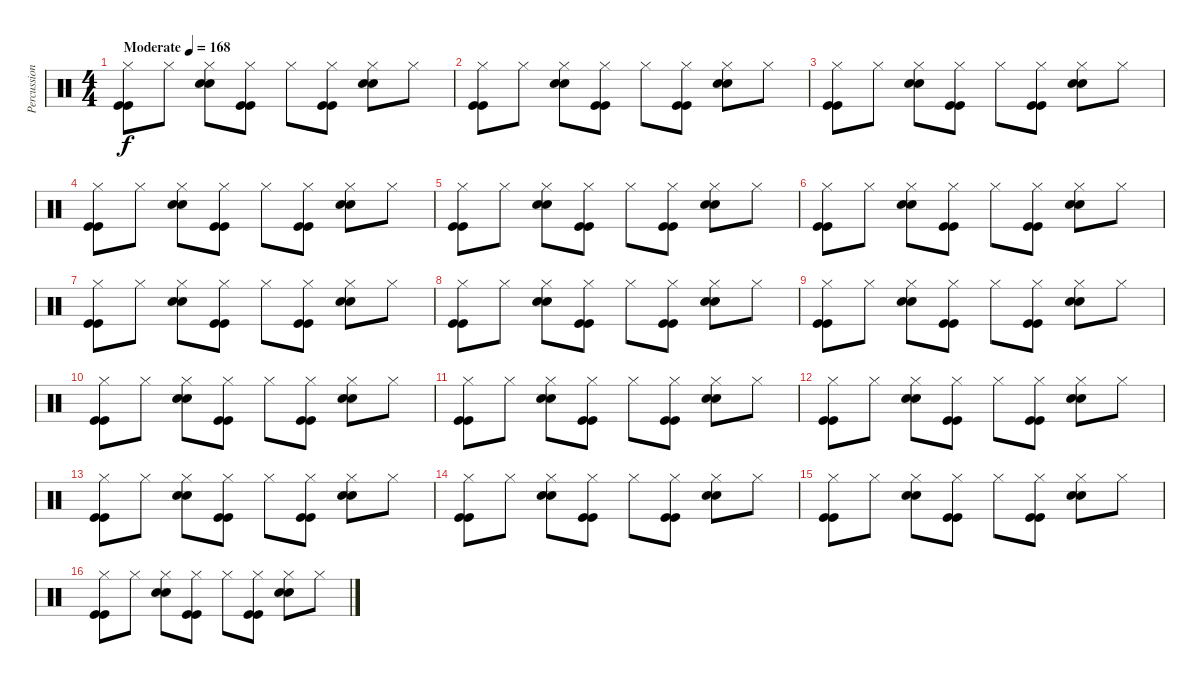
\track ("Percussion" "Percussion") {instrument percussion}
\staff {score}
\articulation defaults
\ts (4 4)
\tempo (168 "Moderate")
\clef neutral
\ks c
("Kick (hit)" "Hi-Hat (closed)" "Kick (hit)").8{dy f} "Hi-Hat (closed)".8 ("Snare (hit) 2" "Hi-Hat (closed)" "Snare (hit) 2").8 ("Kick (hit)" "Hi-Hat (closed)" "Kick (hit)").8 "Hi-Hat (closed)".8 ("Kick (hit)" "Hi-Hat (closed)" "Kick (hit)").8 ("Snare (hit) 2" "Hi-Hat (closed)" "Snare (hit) 2").8 "Hi-Hat (closed)".8 |
("Kick (hit)" "Hi-Hat (closed)" "Kick (hit)").8 "Hi-Hat (closed)".8 ("Snare (hit) 2" "Hi-Hat (closed)" "Snare (hit) 2").8 ("Kick (hit)" "Hi-Hat (closed)" "Kick (hit)").8 "Hi-Hat (closed)".8 ("Kick (hit)" "Hi-Hat (closed)" "Kick (hit)").8 ("Snare (hit) 2" "Hi-Hat (closed)" "Snare (hit) 2").8 "Hi-Hat (closed)".8 |
("Kick (hit)" "Hi-Hat (closed)" "Kick (hit)").8 "Hi-Hat (closed)".8 ("Snare (hit) 2" "Hi-Hat (closed)" "Snare (hit) 2").8 ("Kick (hit)" "Hi-Hat (closed)" "Kick (hit)").8 "Hi-Hat (closed)".8 ("Kick (hit)" "Hi-Hat (closed)" "Kick (hit)").8 ("Snare (hit) 2" "Hi-Hat (closed)" "Snare (hit) 2").8 "Hi-Hat (closed)".8 |
("Kick (hit)" "Hi-Hat (closed)" "Kick (hit)").8 "Hi-Hat (closed)".8 ("Snare (hit) 2" "Hi-Hat (closed)" "Snare (hit) 2").8 ("Kick (hit)" "Hi-Hat (closed)" "Kick (hit)").8 "Hi-Hat (closed)".8 ("Kick (hit)" "Hi-Hat (closed)" "Kick (hit)").8 ("Snare (hit) 2" "Hi-Hat (closed)" "Snare (hit) 2").8 "Hi-Hat (closed)".8 |
("Kick (hit)" "Hi-Hat (closed)" "Kick (hit)").8 "Hi-Hat (closed)".8 ("Snare (hit) 2" "Hi-Hat (closed)" "Snare (hit) 2").8 ("Kick (hit)" "Hi-Hat (closed)" "Kick (hit)").8 "Hi-Hat (closed)".8 ("Kick (hit)" "Hi-Hat (closed)" "Kick (hit)").8 ("Snare (hit) 2" "Hi-Hat (closed)" "Snare (hit) 2").8 "Hi-Hat (closed)".8 |
("Kick (hit)" "Hi-Hat (closed)" "Kick (hit)").8 "Hi-Hat (closed)".8 ("Snare (hit) 2" "Hi-Hat (closed)" "Snare (hit) 2").8 ("Kick (hit)" "Hi-Hat (closed)" "Kick (hit)").8 "Hi-Hat (closed)".8 ("Kick (hit)" "Hi-Hat (closed)" "Kick (hit)").8 ("Snare (hit) 2" "Hi-Hat (closed)" "Snare (hit) 2").8 "Hi-Hat (closed)".8 |
("Kick (hit)" "Hi-Hat (closed)" "Kick (hit)").8 "Hi-Hat (closed)".8 ("Snare (hit) 2" "Hi-Hat (closed)" "Snare (hit) 2").8 ("Kick (hit)" "Hi-Hat (closed)" "Kick (hit)").8 "Hi-Hat (closed)".8 ("Kick (hit)" "Hi-Hat (closed)" "Kick (hit)").8 ("Snare (hit) 2" "Hi-Hat (closed)" "Snare (hit) 2").8 "Hi-Hat (closed)".8 |
("Kick (hit)" "Hi-Hat (closed)" "Kick (hit)").8 "Hi-Hat (closed)".8 ("Snare (hit) 2" "Hi-Hat (closed)" "Snare (hit) 2").8 ("Kick (hit)" "Hi-Hat (closed)" "Kick (hit)").8 "Hi-Hat (closed)".8 ("Kick (hit)" "Hi-Hat (closed)" "Kick (hit)").8 ("Snare (hit) 2" "Hi-Hat (closed)" "Snare (hit) 2").8 "Hi-Hat (closed)".8 |
("Kick (hit)" "Hi-Hat (closed)" "Kick (hit)").8 "Hi-Hat (closed)".8 ("Snare (hit) 2" "Hi-Hat (closed)" "Snare (hit) 2").8 ("Kick (hit)" "Hi-Hat (closed)" "Kick (hit)").8 "Hi-Hat (closed)".8 ("Kick (hit)" "Hi-Hat (closed)" "Kick (hit)").8 ("Snare (hit) 2" "Hi-Hat (closed)" "Snare (hit) 2").8 "Hi-Hat (closed)".8 |
("Kick (hit)" "Hi-Hat (closed)" "Kick (hit)").8 "Hi-Hat (closed)".8 ("Snare (hit) 2" "Hi-Hat (closed)" "Snare (hit) 2").8 ("Kick (hit)" "Hi-Hat (closed)" "Kick (hit)").8 "Hi-Hat (closed)".8 ("Kick (hit)" "Hi-Hat (closed)" "Kick (hit)").8 ("Snare (hit) 2" "Hi-Hat (closed)" "Snare (hit) 2").8 "Hi-Hat (closed)".8 |
("Kick (hit)" "Hi-Hat (closed)" "Kick (hit)").8 "Hi-Hat (closed)".8 ("Snare (hit) 2" "Hi-Hat (closed)" "Snare (hit) 2").8 ("Kick (hit)" "Hi-Hat (closed)" "Kick (hit)").8 "Hi-Hat (closed)".8 ("Kick (hit)" "Hi-Hat (closed)" "Kick (hit)").8 ("Snare (hit) 2" "Hi-Hat (closed)" "Snare (hit) 2").8 "Hi-Hat (closed)".8 |
("Kick (hit)" "Hi-Hat (closed)" "Kick (hit)").8 "Hi-Hat (closed)".8 ("Snare (hit) 2" "Hi-Hat (closed)" "Snare (hit) 2").8 ("Kick (hit)" "Hi-Hat (closed)" "Kick (hit)").8 "Hi-Hat (closed)".8 ("Kick (hit)" "Hi-Hat (closed)" "Kick (hit)").8 ("Snare (hit) 2" "Hi-Hat (closed)" "Snare (hit) 2").8 "Hi-Hat (closed)".8 |
("Kick (hit)" "Hi-Hat (closed)" "Kick (hit)").8 "Hi-Hat (closed)".8 ("Snare (hit) 2" "Hi-Hat (closed)" "Snare (hit) 2").8 ("Kick (hit)" "Hi-Hat (closed)" "Kick (hit)").8 "Hi-Hat (closed)".8 ("Kick (hit)" "Hi-Hat (closed)" "Kick (hit)").8 ("Snare (hit) 2" "Hi-Hat (closed)" "Snare (hit) 2").8 "Hi-Hat (closed)".8 |
("Kick (hit)" "Hi-Hat (closed)" "Kick (hit)").8 "Hi-Hat (closed)".8 ("Snare (hit) 2" "Hi-Hat (closed)" "Snare (hit) 2").8 ("Kick (hit)" "Hi-Hat (closed)" "Kick (hit)").8 "Hi-Hat (closed)".8 ("Kick (hit)" "Hi-Hat (closed)" "Kick (hit)").8 ("Snare (hit) 2" "Hi-Hat (closed)" "Snare (hit) 2").8 "Hi-Hat (closed)".8 |
("Kick (hit)" "Hi-Hat (closed)" "Kick (hit)").8 "Hi-Hat (closed)".8 ("Snare (hit) 2" "Hi-Hat (closed)" "Snare (hit) 2").8 ("Kick (hit)" "Hi-Hat (closed)" "Kick (hit)").8 "Hi-Hat (closed)".8 ("Kick (hit)" "Hi-Hat (closed)" "Kick (hit)").8 ("Snare (hit) 2" "Hi-Hat (closed)" "Snare (hit) 2").8 "Hi-Hat (closed)".8 |
("Kick (hit)" "Hi-Hat (closed)" "Kick (hit)").8 "Hi-Hat (closed)".8 ("Snare (hit) 2" "Hi-Hat (closed)" "Snare (hit) 2").8 ("Kick (hit)" "Hi-Hat (closed)" "Kick (hit)").8 "Hi-Hat (closed)".8 ("Kick (hit)" "Hi-Hat (closed)" "Kick (hit)").8 ("Snare (hit) 2" "Hi-Hat (closed)" "Snare (hit) 2").8 "Hi-Hat (closed)".8
